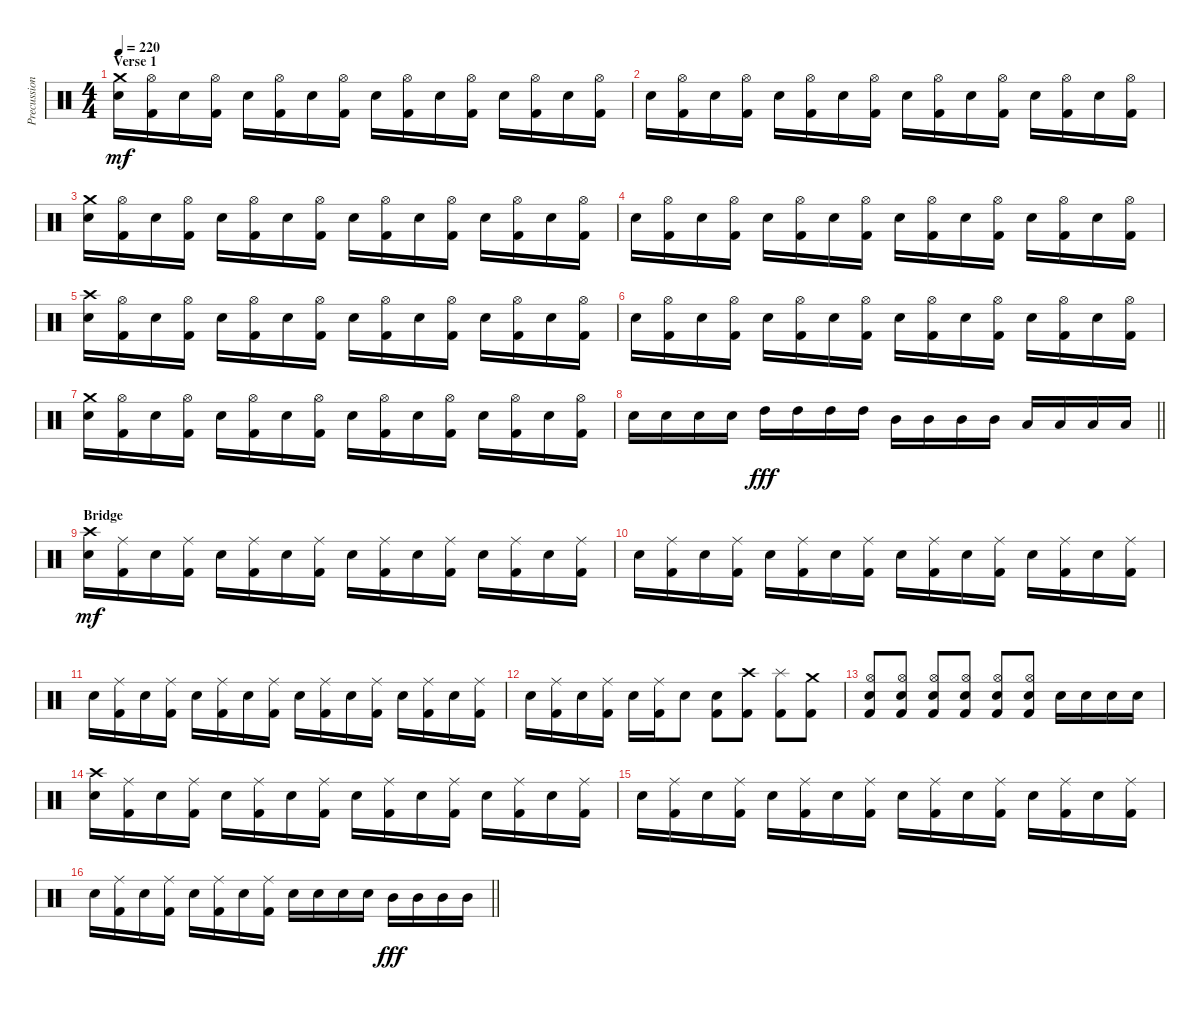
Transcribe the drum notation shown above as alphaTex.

\track ("Precussion" "Precussion") {instrument percussion}
\staff {score}
\articulation defaults
\ts (4 4)
\section ("" "Verse 1")
\tempo 220
\clef neutral
\ks c
("Crash medium (hit)" "Electric Snare (hit)").16{dy mf} ("Hi-Hat (open)" "Kick (hit) 2").16 "Electric Snare (hit)".16 ("Hi-Hat (open)" "Kick (hit) 2").16 "Electric Snare (hit)".16 ("Hi-Hat (open)" "Kick (hit) 2").16 "Electric Snare (hit)".16 ("Hi-Hat (open)" "Kick (hit) 2").16 "Electric Snare (hit)".16 ("Hi-Hat (open)" "Kick (hit) 2").16 "Electric Snare (hit)".16 ("Hi-Hat (open)" "Kick (hit) 2").16 "Electric Snare (hit)".16 ("Hi-Hat (open)" "Kick (hit) 2").16 "Electric Snare (hit)".16 ("Hi-Hat (open)" "Kick (hit) 2").16 |
"Electric Snare (hit)".16 ("Hi-Hat (open)" "Kick (hit) 2").16 "Electric Snare (hit)".16 ("Hi-Hat (open)" "Kick (hit) 2").16 "Electric Snare (hit)".16 ("Hi-Hat (open)" "Kick (hit) 2").16 "Electric Snare (hit)".16 ("Hi-Hat (open)" "Kick (hit) 2").16 "Electric Snare (hit)".16 ("Hi-Hat (open)" "Kick (hit) 2").16 "Electric Snare (hit)".16 ("Hi-Hat (open)" "Kick (hit) 2").16 "Electric Snare (hit)".16 ("Hi-Hat (open)" "Kick (hit) 2").16 "Electric Snare (hit)".16 ("Hi-Hat (open)" "Kick (hit) 2").16 |
("Crash medium (hit)" "Electric Snare (hit)").16 ("Hi-Hat (open)" "Kick (hit) 2").16 "Electric Snare (hit)".16 ("Hi-Hat (open)" "Kick (hit) 2").16 "Electric Snare (hit)".16 ("Hi-Hat (open)" "Kick (hit) 2").16 "Electric Snare (hit)".16 ("Hi-Hat (open)" "Kick (hit) 2").16 "Electric Snare (hit)".16 ("Hi-Hat (open)" "Kick (hit) 2").16 "Electric Snare (hit)".16 ("Hi-Hat (open)" "Kick (hit) 2").16 "Electric Snare (hit)".16 ("Hi-Hat (open)" "Kick (hit) 2").16 "Electric Snare (hit)".16 ("Hi-Hat (open)" "Kick (hit) 2").16 |
"Electric Snare (hit)".16 ("Hi-Hat (open)" "Kick (hit) 2").16 "Electric Snare (hit)".16 ("Hi-Hat (open)" "Kick (hit) 2").16 "Electric Snare (hit)".16 ("Hi-Hat (open)" "Kick (hit) 2").16 "Electric Snare (hit)".16 ("Hi-Hat (open)" "Kick (hit) 2").16 "Electric Snare (hit)".16 ("Hi-Hat (open)" "Kick (hit) 2").16 "Electric Snare (hit)".16 ("Hi-Hat (open)" "Kick (hit) 2").16 "Electric Snare (hit)".16 ("Hi-Hat (open)" "Kick (hit) 2").16 "Electric Snare (hit)".16 ("Hi-Hat (open)" "Kick (hit) 2").16 |
("Crash high (hit)" "Electric Snare (hit)").16 ("Hi-Hat (open)" "Kick (hit) 2").16 "Electric Snare (hit)".16 ("Hi-Hat (open)" "Kick (hit) 2").16 "Electric Snare (hit)".16 ("Hi-Hat (open)" "Kick (hit) 2").16 "Electric Snare (hit)".16 ("Hi-Hat (open)" "Kick (hit) 2").16 "Electric Snare (hit)".16 ("Hi-Hat (open)" "Kick (hit) 2").16 "Electric Snare (hit)".16 ("Hi-Hat (open)" "Kick (hit) 2").16 "Electric Snare (hit)".16 ("Hi-Hat (open)" "Kick (hit) 2").16 "Electric Snare (hit)".16 ("Hi-Hat (open)" "Kick (hit) 2").16 |
"Electric Snare (hit)".16 ("Hi-Hat (open)" "Kick (hit) 2").16 "Electric Snare (hit)".16 ("Hi-Hat (open)" "Kick (hit) 2").16 "Electric Snare (hit)".16 ("Hi-Hat (open)" "Kick (hit) 2").16 "Electric Snare (hit)".16 ("Hi-Hat (open)" "Kick (hit) 2").16 "Electric Snare (hit)".16 ("Hi-Hat (open)" "Kick (hit) 2").16 "Electric Snare (hit)".16 ("Hi-Hat (open)" "Kick (hit) 2").16 "Electric Snare (hit)".16 ("Hi-Hat (open)" "Kick (hit) 2").16 "Electric Snare (hit)".16 ("Hi-Hat (open)" "Kick (hit) 2").16 |
("Crash medium (hit)" "Electric Snare (hit)").16 ("Hi-Hat (open)" "Kick (hit) 2").16 "Electric Snare (hit)".16 ("Hi-Hat (open)" "Kick (hit) 2").16 "Electric Snare (hit)".16 ("Hi-Hat (open)" "Kick (hit) 2").16 "Electric Snare (hit)".16 ("Hi-Hat (open)" "Kick (hit) 2").16 "Electric Snare (hit)".16 ("Hi-Hat (open)" "Kick (hit) 2").16 "Electric Snare (hit)".16 ("Hi-Hat (open)" "Kick (hit) 2").16 "Electric Snare (hit)".16 ("Hi-Hat (open)" "Kick (hit) 2").16 "Electric Snare (hit)".16 ("Hi-Hat (open)" "Kick (hit) 2").16 |
\barLineRight lightlight "Electric Snare (hit)".16 "Electric Snare (hit)".16 "Electric Snare (hit)".16 "Electric Snare (hit)".16 "High Tom (hit)".16{dy fff} "High Tom (hit)".16 "High Tom (hit)".16 "High Tom (hit)".16 "Mid Tom (hit)".16 "Mid Tom (hit)".16 "Mid Tom (hit)".16 "Mid Tom (hit)".16 "Low Tom (hit)".16 "Low Tom (hit)".16 "Low Tom (hit)".16 "Low Tom (hit)".16
|
\section ("" "Bridge")
("Crash high (hit)" "Electric Snare (hit)").16{dy mf} ("Ride (middle)" "Kick (hit) 2").16 "Electric Snare (hit)".16 ("Ride (middle)" "Kick (hit) 2").16 "Electric Snare (hit)".16 ("Ride (middle)" "Kick (hit) 2").16 "Electric Snare (hit)".16 ("Ride (middle)" "Kick (hit) 2").16 "Electric Snare (hit)".16 ("Ride (middle)" "Kick (hit) 2").16 "Electric Snare (hit)".16 ("Ride (middle)" "Kick (hit) 2").16 "Electric Snare (hit)".16 ("Ride (middle)" "Kick (hit) 2").16 "Electric Snare (hit)".16 ("Ride (middle)" "Kick (hit) 2").16 |
"Electric Snare (hit)".16 ("Ride (middle)" "Kick (hit) 2").16 "Electric Snare (hit)".16 ("Ride (middle)" "Kick (hit) 2").16 "Electric Snare (hit)".16 ("Ride (middle)" "Kick (hit) 2").16 "Electric Snare (hit)".16 ("Ride (middle)" "Kick (hit) 2").16 "Electric Snare (hit)".16 ("Ride (middle)" "Kick (hit) 2").16 "Electric Snare (hit)".16 ("Ride (middle)" "Kick (hit) 2").16 "Electric Snare (hit)".16 ("Ride (middle)" "Kick (hit) 2").16 "Electric Snare (hit)".16 ("Ride (middle)" "Kick (hit) 2").16 |
"Electric Snare (hit)".16 ("Ride (middle)" "Kick (hit) 2").16 "Electric Snare (hit)".16 ("Ride (middle)" "Kick (hit) 2").16 "Electric Snare (hit)".16 ("Ride (middle)" "Kick (hit) 2").16 "Electric Snare (hit)".16 ("Ride (middle)" "Kick (hit) 2").16 "Electric Snare (hit)".16 ("Ride (middle)" "Kick (hit) 2").16 "Electric Snare (hit)".16 ("Ride (middle)" "Kick (hit) 2").16 "Electric Snare (hit)".16 ("Ride (middle)" "Kick (hit) 2").16 "Electric Snare (hit)".16 ("Ride (middle)" "Kick (hit) 2").16 |
"Electric Snare (hit)".16 ("Ride (middle)" "Kick (hit) 2").16 "Electric Snare (hit)".16 ("Ride (middle)" "Kick (hit) 2").16 "Electric Snare (hit)".16 ("Ride (middle)" "Kick (hit) 2").16 "Electric Snare (hit)".8 ("Electric Snare (hit)" "Kick (hit) 2").8 ("Crash high (hit)" "Kick (hit) 2").8 ("Splash (hit)" "Kick (hit) 2").8 ("Crash medium (hit)" "Kick (hit) 2").8 |
("Hi-Hat (open)" "Electric Snare (hit)" "Kick (hit) 2").8 ("Hi-Hat (open)" "Electric Snare (hit)" "Kick (hit) 2").8 ("Hi-Hat (open)" "Electric Snare (hit)" "Kick (hit) 2").8 ("Hi-Hat (open)" "Electric Snare (hit)" "Kick (hit) 2").8 ("Hi-Hat (open)" "Electric Snare (hit)" "Kick (hit) 2").8 ("Hi-Hat (open)" "Electric Snare (hit)" "Kick (hit) 2").8 "Electric Snare (hit)".16 "Electric Snare (hit)".16 "Electric Snare (hit)".16 "Electric Snare (hit)".16 |
("Crash high (hit)" "Electric Snare (hit)").16 ("Ride (middle)" "Kick (hit) 2").16 "Electric Snare (hit)".16 ("Ride (middle)" "Kick (hit) 2").16 "Electric Snare (hit)".16 ("Ride (middle)" "Kick (hit) 2").16 "Electric Snare (hit)".16 ("Ride (middle)" "Kick (hit) 2").16 "Electric Snare (hit)".16 ("Ride (middle)" "Kick (hit) 2").16 "Electric Snare (hit)".16 ("Ride (middle)" "Kick (hit) 2").16 "Electric Snare (hit)".16 ("Ride (middle)" "Kick (hit) 2").16 "Electric Snare (hit)".16 ("Ride (middle)" "Kick (hit) 2").16 |
"Electric Snare (hit)".16 ("Ride (middle)" "Kick (hit) 2").16 "Electric Snare (hit)".16 ("Ride (middle)" "Kick (hit) 2").16 "Electric Snare (hit)".16 ("Ride (middle)" "Kick (hit) 2").16 "Electric Snare (hit)".16 ("Ride (middle)" "Kick (hit) 2").16 "Electric Snare (hit)".16 ("Ride (middle)" "Kick (hit) 2").16 "Electric Snare (hit)".16 ("Ride (middle)" "Kick (hit) 2").16 "Electric Snare (hit)".16 ("Ride (middle)" "Kick (hit) 2").16 "Electric Snare (hit)".16 ("Ride (middle)" "Kick (hit) 2").16 |
\barLineRight lightlight "Electric Snare (hit)".16
("Ride (middle)" "Kick (hit) 2").16 "Electric Snare (hit)".16 ("Ride (middle)" "Kick (hit) 2").16 "Electric Snare (hit)".16 ("Ride (middle)" "Kick (hit) 2").16 "Electric Snare (hit)".16 ("Ride (middle)" "Kick (hit) 2").16 "Electric Snare (hit)".16 "Electric Snare (hit)".16 "Electric Snare (hit)".16 "Electric Snare (hit)".16 "Mid Tom (hit)".16{dy fff} "Mid Tom (hit)".16 "Mid Tom (hit)".16 "Mid Tom (hit)".16
